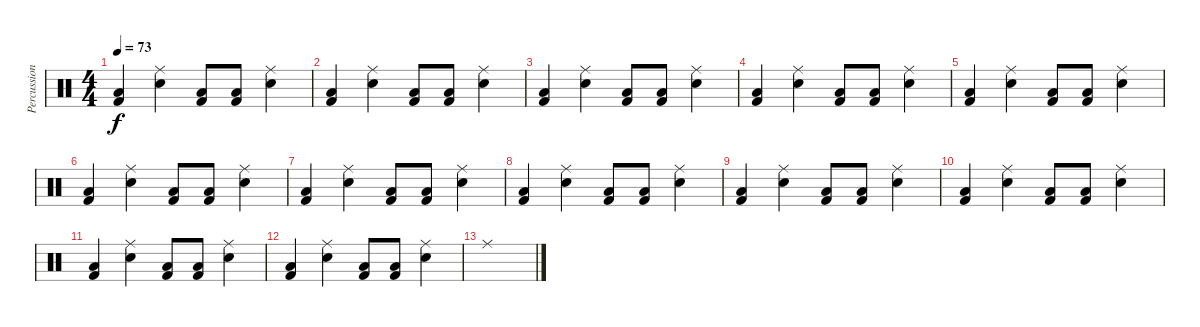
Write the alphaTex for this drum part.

\track ("Percussion" "Percussion") {instrument percussion}
\staff {score}
\articulation defaults
\ts (4 4)
\tempo 73
\clef neutral
\ks c
("Low Floor Tom (hit)" "Kick (hit) 2").4{dy f} ("Ride (middle)" "Electric Snare (hit)").4 ("Low Floor Tom (hit)" "Kick (hit) 2").8 ("Low Floor Tom (hit)" "Kick (hit) 2").8 ("Ride (middle)" "Electric Snare (hit)").4 |
("Low Floor Tom (hit)" "Kick (hit) 2").4 ("Ride (middle)" "Electric Snare (hit)").4 ("Low Floor Tom (hit)" "Kick (hit) 2").8 ("Low Floor Tom (hit)" "Kick (hit) 2").8 ("Ride (middle)" "Electric Snare (hit)").4 |
("Low Floor Tom (hit)" "Kick (hit) 2").4 ("Ride (middle)" "Electric Snare (hit)").4 ("Low Floor Tom (hit)" "Kick (hit) 2").8 ("Low Floor Tom (hit)" "Kick (hit) 2").8 ("Ride (middle)" "Electric Snare (hit)").4 |
("Low Floor Tom (hit)" "Kick (hit) 2").4 ("Ride (middle)" "Electric Snare (hit)").4 ("Low Floor Tom (hit)" "Kick (hit) 2").8 ("Low Floor Tom (hit)" "Kick (hit) 2").8 ("Ride (middle)" "Electric Snare (hit)").4 |
("Low Floor Tom (hit)" "Kick (hit) 2").4 ("Ride (middle)" "Electric Snare (hit)").4 ("Low Floor Tom (hit)" "Kick (hit) 2").8 ("Low Floor Tom (hit)" "Kick (hit) 2").8 ("Ride (middle)" "Electric Snare (hit)").4 |
("Low Floor Tom (hit)" "Kick (hit) 2").4 ("Ride (middle)" "Electric Snare (hit)").4 ("Low Floor Tom (hit)" "Kick (hit) 2").8 ("Low Floor Tom (hit)" "Kick (hit) 2").8 ("Ride (middle)" "Electric Snare (hit)").4 |
("Low Floor Tom (hit)" "Kick (hit) 2").4 ("Ride (middle)" "Electric Snare (hit)").4 ("Low Floor Tom (hit)" "Kick (hit) 2").8 ("Low Floor Tom (hit)" "Kick (hit) 2").8 ("Ride (middle)" "Electric Snare (hit)").4 |
("Low Floor Tom (hit)" "Kick (hit) 2").4 ("Ride (middle)" "Electric Snare (hit)").4 ("Low Floor Tom (hit)" "Kick (hit) 2").8 ("Low Floor Tom (hit)" "Kick (hit) 2").8 ("Ride (middle)" "Electric Snare (hit)").4 |
("Low Floor Tom (hit)" "Kick (hit) 2").4 ("Ride (middle)" "Electric Snare (hit)").4 ("Low Floor Tom (hit)" "Kick (hit) 2").8 ("Low Floor Tom (hit)" "Kick (hit) 2").8 ("Ride (middle)" "Electric Snare (hit)").4 |
("Low Floor Tom (hit)" "Kick (hit) 2").4 ("Ride (middle)" "Electric Snare (hit)").4 ("Low Floor Tom (hit)" "Kick (hit) 2").8 ("Low Floor Tom (hit)" "Kick (hit) 2").8 ("Ride (middle)" "Electric Snare (hit)").4 |
("Low Floor Tom (hit)" "Kick (hit) 2").4 ("Ride (middle)" "Electric Snare (hit)").4 ("Low Floor Tom (hit)" "Kick (hit) 2").8 ("Low Floor Tom (hit)" "Kick (hit) 2").8 ("Ride (middle)" "Electric Snare (hit)").4 |
("Low Floor Tom (hit)" "Kick (hit) 2").4 ("Ride (middle)" "Electric Snare (hit)").4 ("Low Floor Tom (hit)" "Kick (hit) 2").8 ("Low Floor Tom (hit)" "Kick (hit) 2").8 ("Ride (middle)" "Electric Snare (hit)").4 |
"Ride (middle)".1
